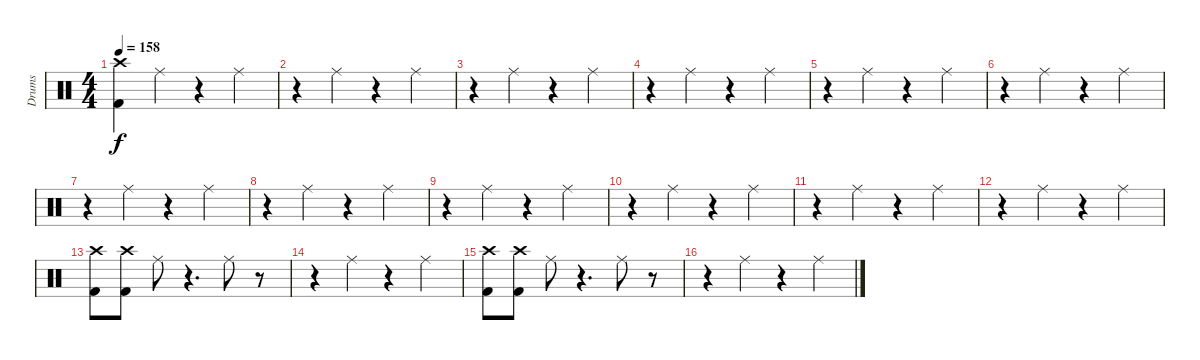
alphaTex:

\track ("Drums" "Drums") {instrument percussion}
\staff {score}
\articulation defaults
\ts (4 4)
\tempo 158
\clef neutral
\ks c
("Crash high (hit)" "Kick (hit) 2").4{dy f} "Ride (middle)".4 r.4 "Ride (middle)".4 |
r.4 "Ride (middle)".4 r.4 "Ride (middle)".4 |
r.4 "Ride (middle)".4 r.4 "Ride (middle)".4 |
r.4 "Ride (middle)".4 r.4 "Ride (middle)".4 |
r.4 "Ride (middle)".4 r.4 "Ride (middle)".4 |
r.4 "Ride (middle)".4 r.4 "Ride (middle)".4 |
r.4 "Ride (middle)".4 r.4 "Ride (middle)".4 |
r.4 "Ride (middle)".4 r.4 "Ride (middle)".4 |
r.4 "Ride (middle)".4 r.4 "Ride (middle)".4 |
r.4 "Ride (middle)".4 r.4 "Ride (middle)".4 |
r.4 "Ride (middle)".4 r.4 "Ride (middle)".4 |
r.4 "Ride (middle)".4 r.4 "Ride (middle)".4 |
("Crash high (hit)" "Kick (hit) 2").8 ("Crash high (hit)" "Kick (hit) 2").8 "Ride (middle)".8 r.4{d} "Ride (middle)".8 r.8 |
r.4 "Ride (middle)".4 r.4 "Ride (middle)".4 |
("Crash high (hit)" "Kick (hit) 2").8 ("Crash high (hit)" "Kick (hit) 2").8 "Ride (middle)".8 r.4{d} "Ride (middle)".8 r.8 |
r.4 "Ride (middle)".4 r.4 "Ride (middle)".4
